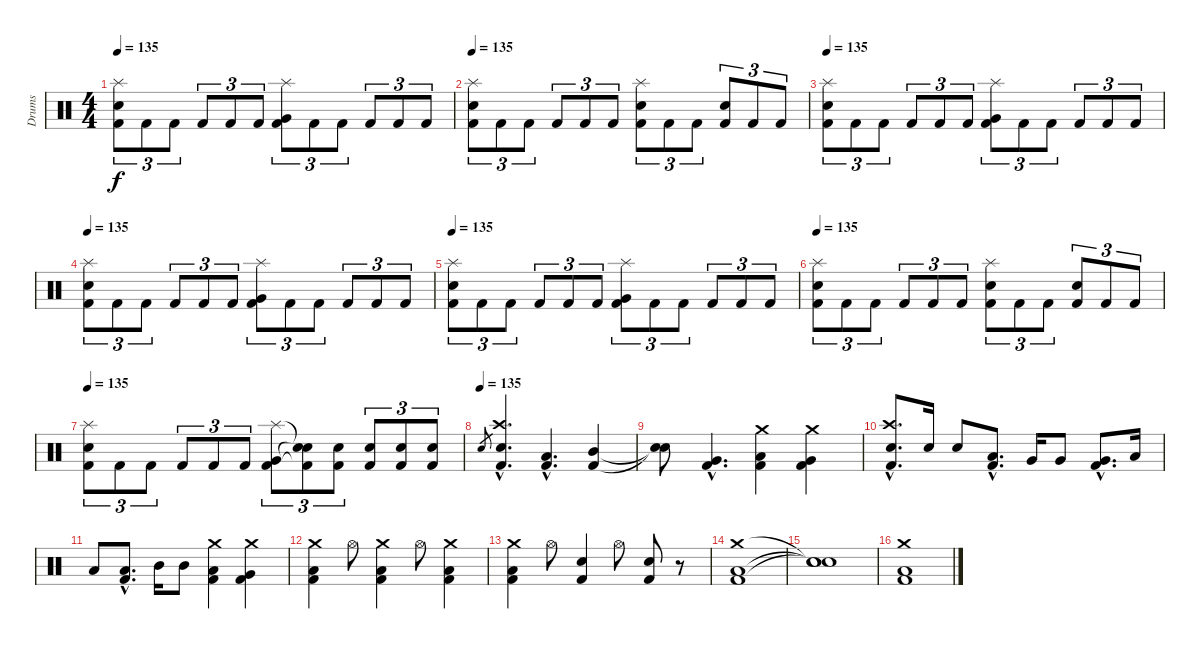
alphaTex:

\track ("Drums" "Drums") {instrument percussion}
\staff {score}
\articulation defaults
\ts (4 4)
\tempo 135
\clef neutral
\ks c
("Splash (hit)" "Snare (hit) 2" "Kick (hit) 2").8{tu (3 2) dy f} "Kick (hit) 2".8{tu (3 2)} "Kick (hit) 2".8{tu (3 2)} "Kick (hit) 2".8{tu (3 2)} "Kick (hit) 2".8{tu (3 2)} "Kick (hit) 2".8{tu (3 2)} ("Splash (hit)" "Very Low Tom (hit)" "Kick (hit) 2").8{tu (3 2)} "Kick (hit) 2".8{tu (3 2)} "Kick (hit) 2".8{tu (3 2)} "Kick (hit) 2".8{tu (3 2)} "Kick (hit) 2".8{tu (3 2)} "Kick (hit) 2".8{tu (3 2)} |
\tempo 135
("Splash (hit)" "Snare (hit) 2" "Kick (hit) 2").8{tu (3 2)} "Kick (hit) 2".8{tu (3 2)} "Kick (hit) 2".8{tu (3 2)} "Kick (hit) 2".8{tu (3 2)} "Kick (hit) 2".8{tu (3 2)} "Kick (hit) 2".8{tu (3 2)} ("Splash (hit)" "Snare (hit) 2" "Kick (hit) 2").8{tu (3 2)} "Kick (hit) 2".8{tu (3 2)} "Kick (hit) 2".8{tu (3 2)} ("Snare (hit) 2" "Kick (hit) 2").8{tu (3 2)} "Kick (hit) 2".8{tu (3 2)} "Kick (hit) 2".8{tu (3 2)} |
\tempo 135
("Splash (hit)" "Snare (hit) 2" "Kick (hit) 2").8{tu (3 2)} "Kick (hit) 2".8{tu (3 2)} "Kick (hit) 2".8{tu (3 2)} "Kick (hit) 2".8{tu (3 2)} "Kick (hit) 2".8{tu (3 2)} "Kick (hit) 2".8{tu (3 2)} ("Splash (hit)" "Very Low Tom (hit)" "Kick (hit) 2").8{tu (3 2)} "Kick (hit) 2".8{tu (3 2)} "Kick (hit) 2".8{tu (3 2)} "Kick (hit) 2".8{tu (3 2)} "Kick (hit) 2".8{tu (3 2)} "Kick (hit) 2".8{tu (3 2)} |
\tempo 135
("Splash (hit)" "Snare (hit) 2" "Kick (hit) 2").8{tu (3 2)} "Kick (hit) 2".8{tu (3 2)} "Kick (hit) 2".8{tu (3 2)} "Kick (hit) 2".8{tu (3 2)} "Kick (hit) 2".8{tu (3 2)} "Kick (hit) 2".8{tu (3 2)} ("Splash (hit)" "Very Low Tom (hit)" "Kick (hit) 2").8{tu (3 2)} "Kick (hit) 2".8{tu (3 2)} "Kick (hit) 2".8{tu (3 2)} "Kick (hit) 2".8{tu (3 2)} "Kick (hit) 2".8{tu (3 2)} "Kick (hit) 2".8{tu (3 2)} |
\tempo 135
("Splash (hit)" "Snare (hit) 2" "Kick (hit) 2").8{tu (3 2)} "Kick (hit) 2".8{tu (3 2)} "Kick (hit) 2".8{tu (3 2)} "Kick (hit) 2".8{tu (3 2)} "Kick (hit) 2".8{tu (3 2)} "Kick (hit) 2".8{tu (3 2)} ("Splash (hit)" "Very Low Tom (hit)" "Kick (hit) 2").8{tu (3 2)} "Kick (hit) 2".8{tu (3 2)} "Kick (hit) 2".8{tu (3 2)} "Kick (hit) 2".8{tu (3 2)} "Kick (hit) 2".8{tu (3 2)} "Kick (hit) 2".8{tu (3 2)} |
\tempo 135
("Splash (hit)" "Snare (hit) 2" "Kick (hit) 2").8{tu (3 2)} "Kick (hit) 2".8{tu (3 2)} "Kick (hit) 2".8{tu (3 2)} "Kick (hit) 2".8{tu (3 2)} "Kick (hit) 2".8{tu (3 2)} "Kick (hit) 2".8{tu (3 2)} ("Splash (hit)" "Snare (hit) 2" "Kick (hit) 2").8{tu (3 2)} "Kick (hit) 2".8{tu (3 2)} "Kick (hit) 2".8{tu (3 2)} ("Snare (hit) 2" "Kick (hit) 2").8{tu (3 2)} "Kick (hit) 2".8{tu (3 2)} "Kick (hit) 2".8{tu (3 2)} |
\tempo 135
("Splash (hit)" "Snare (hit) 2" "Kick (hit) 2").8{tu (3 2)} "Kick (hit) 2".8{tu (3 2)} "Kick (hit) 2".8{tu (3 2)} "Kick (hit) 2".8{tu (3 2)} "Kick (hit) 2".8{tu (3 2)} "Kick (hit) 2".8{tu (3 2)} ("Splash (hit)" "Very Low Tom (hit)" "Kick (hit) 2").8{tu (3 2)} ("Snare (hit)"{t} "Snare (hit)"{t} "Kick (hit) 2"{t}).8{tu (3 2)} ("Snare (hit) 2" "Kick (hit) 2").8{tu (3 2)} ("Snare (hit) 2" "Kick (hit) 2").8{tu (3 2)} ("Snare (hit) 2" "Kick (hit) 2").8{tu (3 2)} ("Snare (hit) 2" "Kick (hit) 2").8{tu (3 2)} |
\tempo (135)
"Snare (hit) 2".8{gr} ("Crash high (hit)"{hac} "Electric Snare (hit)"{hac} "Kick (hit) 2"{hac}).4{d} ("Low Floor Tom (hit)"{hac} "Kick (hit) 2"{hac}).4{d} ("Mid Tom (hit)" "Kick (hit) 2").4 |
("Snare (hit)"{t} "Snare (hit)"{t}).8 ("Very Low Tom (hit)"{hac} "Kick (hit) 2"{hac}).4{d} ("Crash medium (hit)" "Low Floor Tom (hit)" "Kick (hit) 2").4 ("Crash medium (hit)" "Very Low Tom (hit)" "Kick (hit) 2").4 |
("Crash high (hit)"{hac} "Electric Snare (hit)"{hac} "Kick (hit) 2"{hac}).8{d} "Snare (hit) 2".16 "Snare (hit) 2".8 ("Low Floor Tom (hit)"{hac} "Kick (hit) 2"{hac}).8{d} "Very Low Tom (hit)".16 "Very Low Tom (hit)".8 ("Very Low Tom (hit)"{hac} "Kick (hit) 2"{hac}).8{d} "Low Tom (hit)".16 |
"Low Tom (hit)".8 ("Low Tom (hit)"{hac} "Kick (hit) 2"{hac}).8{d} "Mid Tom (hit)".16 "Mid Tom (hit)".8 ("Crash medium (hit)" "Low Floor Tom (hit)" "Kick (hit) 2").4 ("Crash medium (hit)" "Very Low Tom (hit)" "Kick (hit) 2").4 |
("Crash medium (hit)" "Low Floor Tom (hit)" "Kick (hit) 2").4 "Hi-Hat (open)".8 ("Crash medium (hit)" "Low Floor Tom (hit)" "Kick (hit) 2").4 "Hi-Hat (open)".8 ("Crash medium (hit)" "Low Floor Tom (hit)" "Kick (hit) 2").4 |
("Crash medium (hit)" "Low Floor Tom (hit)" "Kick (hit) 2").4 "Hi-Hat (open)".8 ("Electric Snare (hit)" "Kick (hit) 2").4 "Hi-Hat (open)".8 ("Snare (hit) 2" "Kick (hit) 2").8 r.8 |
("Crash medium (hit)" "Low Floor Tom (hit)" "Kick (hit) 2").1 |
("Snare (hit)"{t} "Snare (hit)"{t} "Snare (hit)"{t}).1 |
("Crash medium (hit)" "Low Floor Tom (hit)" "Kick (hit) 2").1
